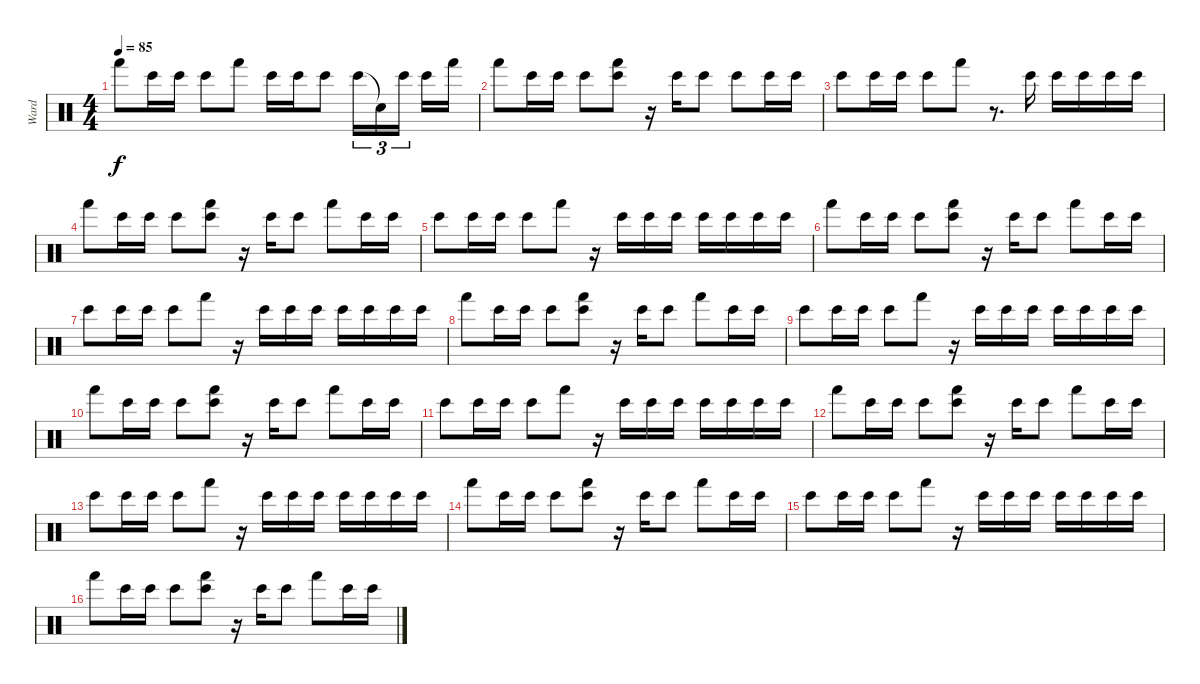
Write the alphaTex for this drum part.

\track ("Ward" "Ward") {instrument percussion}
\staff {score}
\articulation defaults
\ts (4 4)
\tempo 85
\clef neutral
\ks c "Hand (hit)".8{dy f} "Bongo High (hit)".16 "Bongo High (hit)".16 "Bongo High (hit)".8 "Hand (hit)".8 "Bongo High (hit)".16 "Bongo High (hit)".16 "Bongo High (hit)".8 "Bongo High (hit)".16{tu (3 2)} "Snare (hit)"{t}.16{tu (3 2)} "Bongo High (hit)".16{tu (3 2) beam splitsecondary} "Bongo High (hit)".16 "Hand (hit)".16
|
"Hand (hit)".8 "Bongo High (hit)".16 "Bongo High (hit)".16 "Bongo High (hit)".8 ("Bongo High (hit)" "Hand (hit)").8 r.16 "Bongo High (hit)".16 "Bongo High (hit)".8 "Bongo High (hit)".8 "Bongo High (hit)".16 "Bongo High (hit)".16 |
"Bongo High (hit)".8 "Bongo High (hit)".16 "Bongo High (hit)".16 "Bongo High (hit)".8 "Hand (hit)".8 r.8{d} "Bongo High (hit)".16 "Bongo High (hit)".16 "Bongo High (hit)".16 "Bongo High (hit)".16 "Bongo High (hit)".16 |
"Hand (hit)".8 "Bongo High (hit)".16 "Bongo High (hit)".16 "Bongo High (hit)".8 ("Bongo High (hit)" "Hand (hit)").8 r.16 "Bongo High (hit)".16 "Bongo High (hit)".8 "Hand (hit)".8 "Bongo High (hit)".16 "Bongo High (hit)".16 |
"Bongo High (hit)".8 "Bongo High (hit)".16 "Bongo High (hit)".16 "Bongo High (hit)".8 "Hand (hit)".8 r.16 "Bongo High (hit)".16 "Bongo High (hit)".16 "Bongo High (hit)".16 "Bongo High (hit)".16 "Bongo High (hit)".16 "Bongo High (hit)".16 "Bongo High (hit)".16 |
"Hand (hit)".8 "Bongo High (hit)".16 "Bongo High (hit)".16 "Bongo High (hit)".8 ("Bongo High (hit)" "Hand (hit)").8 r.16 "Bongo High (hit)".16 "Bongo High (hit)".8 "Hand (hit)".8 "Bongo High (hit)".16 "Bongo High (hit)".16 |
"Bongo High (hit)".8 "Bongo High (hit)".16 "Bongo High (hit)".16 "Bongo High (hit)".8 "Hand (hit)".8 r.16 "Bongo High (hit)".16 "Bongo High (hit)".16 "Bongo High (hit)".16 "Bongo High (hit)".16 "Bongo High (hit)".16 "Bongo High (hit)".16 "Bongo High (hit)".16 |
"Hand (hit)".8 "Bongo High (hit)".16 "Bongo High (hit)".16 "Bongo High (hit)".8 ("Bongo High (hit)" "Hand (hit)").8 r.16 "Bongo High (hit)".16 "Bongo High (hit)".8 "Hand (hit)".8 "Bongo High (hit)".16 "Bongo High (hit)".16 |
"Bongo High (hit)".8 "Bongo High (hit)".16 "Bongo High (hit)".16 "Bongo High (hit)".8 "Hand (hit)".8 r.16 "Bongo High (hit)".16 "Bongo High (hit)".16 "Bongo High (hit)".16 "Bongo High (hit)".16 "Bongo High (hit)".16 "Bongo High (hit)".16 "Bongo High (hit)".16 |
"Hand (hit)".8 "Bongo High (hit)".16 "Bongo High (hit)".16 "Bongo High (hit)".8 ("Bongo High (hit)" "Hand (hit)").8 r.16 "Bongo High (hit)".16 "Bongo High (hit)".8 "Hand (hit)".8 "Bongo High (hit)".16 "Bongo High (hit)".16 |
"Bongo High (hit)".8 "Bongo High (hit)".16 "Bongo High (hit)".16 "Bongo High (hit)".8 "Hand (hit)".8 r.16 "Bongo High (hit)".16 "Bongo High (hit)".16 "Bongo High (hit)".16 "Bongo High (hit)".16 "Bongo High (hit)".16 "Bongo High (hit)".16 "Bongo High (hit)".16 |
"Hand (hit)".8 "Bongo High (hit)".16 "Bongo High (hit)".16 "Bongo High (hit)".8 ("Bongo High (hit)" "Hand (hit)").8 r.16 "Bongo High (hit)".16 "Bongo High (hit)".8 "Hand (hit)".8 "Bongo High (hit)".16 "Bongo High (hit)".16 |
"Bongo High (hit)".8{volume 0} "Bongo High (hit)".16 "Bongo High (hit)".16 "Bongo High (hit)".8 "Hand (hit)".8 r.16 "Bongo High (hit)".16 "Bongo High (hit)".16 "Bongo High (hit)".16 "Bongo High (hit)".16 "Bongo High (hit)".16 "Bongo High (hit)".16 "Bongo High (hit)".16 |
"Hand (hit)".8 "Bongo High (hit)".16 "Bongo High (hit)".16 "Bongo High (hit)".8 ("Bongo High (hit)" "Hand (hit)").8 r.16 "Bongo High (hit)".16 "Bongo High (hit)".8 "Hand (hit)".8 "Bongo High (hit)".16 "Bongo High (hit)".16 |
"Bongo High (hit)".8 "Bongo High (hit)".16 "Bongo High (hit)".16 "Bongo High (hit)".8 "Hand (hit)".8 r.16 "Bongo High (hit)".16 "Bongo High (hit)".16 "Bongo High (hit)".16 "Bongo High (hit)".16 "Bongo High (hit)".16 "Bongo High (hit)".16 "Bongo High (hit)".16 |
"Hand (hit)".8 "Bongo High (hit)".16 "Bongo High (hit)".16 "Bongo High (hit)".8 ("Bongo High (hit)" "Hand (hit)").8 r.16 "Bongo High (hit)".16 "Bongo High (hit)".8 "Hand (hit)".8 "Bongo High (hit)".16 "Bongo High (hit)".16
